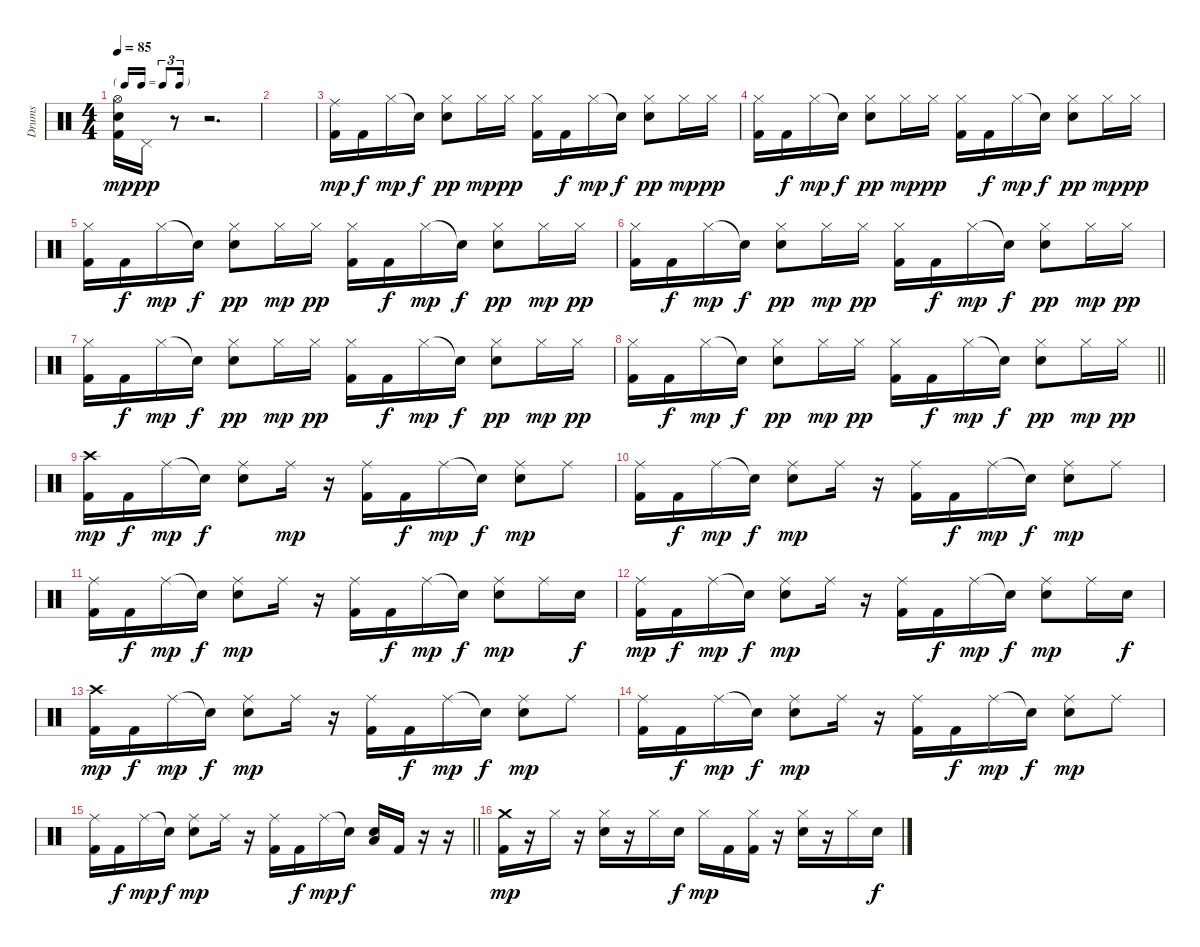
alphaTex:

\track ("Drums" "Drums") {instrument percussion}
\staff {score}
\articulation defaults
\ts (4 4)
\tf triplet16th
\tempo 85
\clef neutral
\ks c
("Hi-Hat (open)" "Electric Snare (hit)" "Kick (hit) 2").16{dy mp} "Pedal Hi-Hat (hit)".16{dy pp} r.8 r.2{d} |
|
("Ride (middle)" "Kick (hit) 2").16{dy mp} "Kick (hit) 2".16{dy f} "Hi-Hat (closed)".16{dy mp} "Snare (hit)"{t}.16{dy f} ("Hi-Hat (closed)" "Electric Snare (hit)").8{dy pp} "Hi-Hat (closed)".16{dy mp} "Hi-Hat (closed)".16{dy pp} ("Hi-Hat (closed)" "Kick (hit) 2").16 "Kick (hit) 2".16{dy f} "Hi-Hat (closed)".16{dy mp} "Snare (hit)"{t}.16{dy f} ("Hi-Hat (closed)" "Electric Snare (hit)").8{dy pp} "Hi-Hat (closed)".16{dy mp} "Hi-Hat (closed)".16{dy pp} |
("Hi-Hat (closed)" "Kick (hit) 2").16 "Kick (hit) 2".16{dy f} "Hi-Hat (closed)".16{dy mp} "Snare (hit)"{t}.16{dy f} ("Hi-Hat (closed)" "Electric Snare (hit)").8{dy pp} "Hi-Hat (closed)".16{dy mp} "Hi-Hat (closed)".16{dy pp} ("Hi-Hat (closed)" "Kick (hit) 2").16 "Kick (hit) 2".16{dy f} "Hi-Hat (closed)".16{dy mp} "Snare (hit)"{t}.16{dy f} ("Hi-Hat (closed)" "Electric Snare (hit)").8{dy pp} "Hi-Hat (closed)".16{dy mp} "Hi-Hat (closed)".16{dy pp} |
("Hi-Hat (closed)" "Kick (hit) 2").16 "Kick (hit) 2".16{dy f} "Hi-Hat (closed)".16{dy mp} "Snare (hit)"{t}.16{dy f} ("Hi-Hat (closed)" "Electric Snare (hit)").8{dy pp} "Hi-Hat (closed)".16{dy mp} "Hi-Hat (closed)".16{dy pp} ("Hi-Hat (closed)" "Kick (hit) 2").16 "Kick (hit) 2".16{dy f} "Hi-Hat (closed)".16{dy mp} "Snare (hit)"{t}.16{dy f} ("Hi-Hat (closed)" "Electric Snare (hit)").8{dy pp} "Hi-Hat (closed)".16{dy mp} "Hi-Hat (closed)".16{dy pp} |
("Hi-Hat (closed)" "Kick (hit) 2").16 "Kick (hit) 2".16{dy f} "Hi-Hat (closed)".16{dy mp} "Snare (hit)"{t}.16{dy f} ("Hi-Hat (closed)" "Electric Snare (hit)").8{dy pp} "Hi-Hat (closed)".16{dy mp} "Hi-Hat (closed)".16{dy pp} ("Hi-Hat (closed)" "Kick (hit) 2").16 "Kick (hit) 2".16{dy f} "Hi-Hat (closed)".16{dy mp} "Snare (hit)"{t}.16{dy f} ("Hi-Hat (closed)" "Electric Snare (hit)").8{dy pp} "Hi-Hat (closed)".16{dy mp} "Hi-Hat (closed)".16{dy pp} |
("Hi-Hat (closed)" "Kick (hit) 2").16 "Kick (hit) 2".16{dy f} "Hi-Hat (closed)".16{dy mp} "Snare (hit)"{t}.16{dy f} ("Hi-Hat (closed)" "Electric Snare (hit)").8{dy pp} "Hi-Hat (closed)".16{dy mp} "Hi-Hat (closed)".16{dy pp} ("Hi-Hat (closed)" "Kick (hit) 2").16 "Kick (hit) 2".16{dy f} "Hi-Hat (closed)".16{dy mp} "Snare (hit)"{t}.16{dy f} ("Hi-Hat (closed)" "Electric Snare (hit)").8{dy pp} "Hi-Hat (closed)".16{dy mp} "Hi-Hat (closed)".16{dy pp} |
\barLineRight lightlight
("Hi-Hat (closed)" "Kick (hit) 2").16 "Kick (hit) 2".16{dy f} "Hi-Hat (closed)".16{dy mp} "Snare (hit)"{t}.16{dy f} ("Hi-Hat (closed)" "Electric Snare (hit)").8{dy pp} "Hi-Hat (closed)".16{dy mp} "Hi-Hat (closed)".16{dy pp} ("Hi-Hat (closed)" "Kick (hit) 2").16 "Kick (hit) 2".16{dy f} "Hi-Hat (closed)".16{dy mp} "Snare (hit)"{t}.16{dy f} ("Hi-Hat (closed)" "Electric Snare (hit)").8{dy pp} "Hi-Hat (closed)".16{dy mp} "Hi-Hat (closed)".16{dy pp} |
("Crash high (hit)" "Kick (hit) 2").16{dy mp} "Kick (hit) 2".16{dy f} "Ride (middle)".16{dy mp} "Snare (hit)"{t}.16{dy f} ("Ride (middle)" "Electric Snare (hit)").8 "Ride (middle)".16{dy mp} r.16 ("Ride (middle)" "Kick (hit) 2").16 "Kick (hit) 2".16{dy f} "Ride (middle)".16{dy mp} "Snare (hit)"{t}.16{dy f} ("Ride (middle)" "Electric Snare (hit)").8{dy mp} "Ride (middle)".8 |
("Ride (middle)" "Kick (hit) 2").16 "Kick (hit) 2".16{dy f} "Ride (middle)".16{dy mp} "Snare (hit)"{t}.16{dy f} ("Ride (middle)" "Electric Snare (hit)").8{dy mp} "Ride (middle)".16 r.16 ("Ride (middle)" "Kick (hit) 2").16 "Kick (hit) 2".16{dy f} "Ride (middle)".16{dy mp} "Snare (hit)"{t}.16{dy f} ("Ride (middle)" "Electric Snare (hit)").8{dy mp} "Ride (middle)".8 |
("Ride (middle)" "Kick (hit) 2").16 "Kick (hit) 2".16{dy f} "Ride (middle)".16{dy mp} "Snare (hit)"{t}.16{dy f} ("Ride (middle)" "Electric Snare (hit)").8{dy mp} "Ride (middle)".16 r.16 ("Ride (middle)" "Kick (hit) 2").16 "Kick (hit) 2".16{dy f} "Ride (middle)".16{dy mp} "Snare (hit)"{t}.16{dy f} ("Ride (middle)" "Electric Snare (hit)").8{dy mp} "Ride (middle)".16 "Electric Snare (hit)".16{dy f} |
("Ride (middle)" "Kick (hit) 2").16{dy mp} "Kick (hit) 2".16{dy f} "Ride (middle)".16{dy mp} "Snare (hit)"{t}.16{dy f} ("Ride (middle)" "Electric Snare (hit)").8{dy mp} "Ride (middle)".16 r.16 ("Ride (middle)" "Kick (hit) 2").16 "Kick (hit) 2".16{dy f} "Ride (middle)".16{dy mp} "Snare (hit)"{t}.16{dy f} ("Ride (middle)" "Electric Snare (hit)").8{dy mp} "Ride (middle)".16 "Electric Snare (hit)".16{dy f} |
("Crash high (hit)" "Kick (hit) 2").16{dy mp} "Kick (hit) 2".16{dy f} "Ride (middle)".16{dy mp} "Snare (hit)"{t}.16{dy f} ("Ride (middle)" "Electric Snare (hit)").8{dy mp} "Ride (middle)".16 r.16 ("Ride (middle)" "Kick (hit) 2").16 "Kick (hit) 2".16{dy f} "Ride (middle)".16{dy mp} "Snare (hit)"{t}.16{dy f} ("Ride (middle)" "Electric Snare (hit)").8{dy mp} "Ride (middle)".8 |
("Ride (middle)" "Kick (hit) 2").16 "Kick (hit) 2".16{dy f} "Ride (middle)".16{dy mp} "Snare (hit)"{t}.16{dy f} ("Ride (middle)" "Electric Snare (hit)").8{dy mp} "Ride (middle)".16 r.16 ("Ride (middle)" "Kick (hit) 2").16 "Kick (hit) 2".16{dy f} "Ride (middle)".16{dy mp} "Snare (hit)"{t}.16{dy f} ("Ride (middle)" "Electric Snare (hit)").8{dy mp} "Ride (middle)".8 |
\barLineRight lightlight
("Ride (middle)" "Kick (hit) 2").16 "Kick (hit) 2".16{dy f} "Ride (middle)".16{dy mp} "Snare (hit)"{t}.16{dy f} ("Ride (middle)" "Electric Snare (hit)").8{dy mp} "Ride (middle)".16 r.16 ("Ride (middle)" "Kick (hit) 2").16 "Kick (hit) 2".16{dy f} "Ride (middle)".16{dy mp} "Snare (hit)"{t}.16{dy f} ("Electric Snare (hit)" "Low Floor Tom (hit)").16 "Kick (hit) 2".16 r.16 r.16 |
("Crash medium (hit)" "Kick (hit) 2").16{dy mp} r.16 "Hi-Hat (closed)".16 r.16 ("Hi-Hat (closed)" "Electric Snare (hit)").16 r.16 "Hi-Hat (closed)".16 "Electric Snare (hit)".16{dy f} "Hi-Hat (closed)".16{dy mp} "Kick (hit) 2".16 ("Hi-Hat (closed)" "Kick (hit) 2").16 r.16 ("Hi-Hat (closed)" "Electric Snare (hit)").16 r.16 "Hi-Hat (closed)".16 "Electric Snare (hit)".16{dy f}
